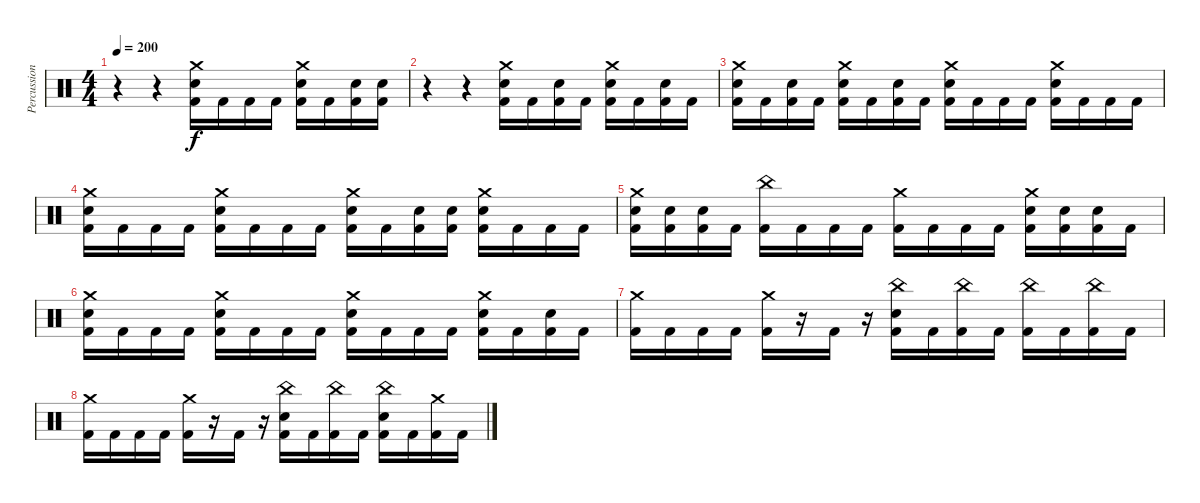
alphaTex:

\track ("Percussion" "Percussion") {instrument percussion}
\staff {score}
\articulation defaults
\ts (4 4)
\tempo 200
\clef neutral
\ks c
r.4{dy f} r.4 ("Crash medium (hit)" "Snare (hit) 2" "Kick (hit) 2").16 "Kick (hit) 2".16 "Kick (hit) 2".16 "Kick (hit) 2".16 ("Crash medium (hit)" "Snare (hit) 2" "Kick (hit) 2").16 "Kick (hit) 2".16 ("Snare (hit) 2" "Kick (hit) 2").16 ("Snare (hit) 2" "Kick (hit) 2").16 |
r.4 r.4 ("Crash medium (hit)" "Snare (hit) 2" "Kick (hit) 2").16 "Kick (hit) 2".16 ("Snare (hit) 2" "Kick (hit) 2").16 "Kick (hit) 2".16 ("Crash medium (hit)" "Snare (hit) 2" "Kick (hit) 2").16 "Kick (hit) 2".16 ("Snare (hit) 2" "Kick (hit) 2").16 "Kick (hit) 2".16 |
("Crash medium (hit)" "Snare (hit) 2" "Kick (hit) 2").16 "Kick (hit) 2".16 ("Snare (hit) 2" "Kick (hit) 2").16 "Kick (hit) 2".16 ("Crash medium (hit)" "Snare (hit) 2" "Kick (hit) 2").16 "Kick (hit) 2".16 ("Snare (hit) 2" "Kick (hit) 2").16 "Kick (hit) 2".16 ("Crash medium (hit)" "Snare (hit) 2" "Kick (hit) 2").16 "Kick (hit) 2".16 "Kick (hit) 2".16 "Kick (hit) 2".16 ("Crash medium (hit)" "Snare (hit) 2" "Kick (hit) 2").16 "Kick (hit) 2".16 "Kick (hit) 2".16 "Kick (hit) 2".16 |
("Crash medium (hit)" "Snare (hit) 2" "Kick (hit) 2").16 "Kick (hit) 2".16 "Kick (hit) 2".16 "Kick (hit) 2".16 ("Crash medium (hit)" "Snare (hit) 2" "Kick (hit) 2").16 "Kick (hit) 2".16 "Kick (hit) 2".16 "Kick (hit) 2".16 ("Crash medium (hit)" "Snare (hit) 2" "Kick (hit) 2").16 "Kick (hit) 2".16 ("Snare (hit) 2" "Kick (hit) 2").16 ("Snare (hit) 2" "Kick (hit) 2").16 ("Crash medium (hit)" "Snare (hit) 2" "Kick (hit) 2").16 "Kick (hit) 2".16 "Kick (hit) 2".16 "Kick (hit) 2".16 |
("Crash medium (hit)" "Snare (hit) 2" "Kick (hit) 2").16 ("Snare (hit) 2" "Kick (hit) 2").16 ("Snare (hit) 2" "Kick (hit) 2").16 "Kick (hit) 2".16 ("China (hit)" "Kick (hit) 2").16 "Kick (hit) 2".16 "Kick (hit) 2".16 "Kick (hit) 2".16 ("Crash medium (hit)" "Kick (hit) 2").16 "Kick (hit) 2".16 "Kick (hit) 2".16 "Kick (hit) 2".16 ("Crash medium (hit)" "Snare (hit) 2" "Kick (hit) 2").16 ("Snare (hit) 2" "Kick (hit) 2").16 ("Snare (hit) 2" "Kick (hit) 2").16 "Kick (hit) 2".16 |
("Crash medium (hit)" "Snare (hit) 2" "Kick (hit) 2").16 "Kick (hit) 2".16 "Kick (hit) 2".16 "Kick (hit) 2".16 ("Crash medium (hit)" "Snare (hit) 2" "Kick (hit) 2").16 "Kick (hit) 2".16 "Kick (hit) 2".16 "Kick (hit) 2".16 ("Crash medium (hit)" "Snare (hit) 2" "Kick (hit) 2").16 "Kick (hit) 2".16 "Kick (hit) 2".16 "Kick (hit) 2".16 ("Crash medium (hit)" "Snare (hit) 2" "Kick (hit) 2").16 "Kick (hit) 2".16 ("Snare (hit) 2" "Kick (hit) 2").16 "Kick (hit) 2".16 |
("Crash medium (hit)" "Kick (hit) 2").16 "Kick (hit) 2".16 "Kick (hit) 2".16 "Kick (hit) 2".16 ("Crash medium (hit)" "Kick (hit) 2").16 r.16 "Kick (hit) 2".16 r.16 ("China (hit)" "Snare (hit) 2" "Kick (hit) 2").16 "Kick (hit) 2".16 ("China (hit)" "Kick (hit) 2").16 "Kick (hit) 2".16 ("China (hit)" "Kick (hit) 2").16 "Kick (hit) 2".16 ("China (hit)" "Kick (hit) 2").16 "Kick (hit) 2".16 |
("Crash medium (hit)" "Kick (hit) 2").16 "Kick (hit) 2".16 "Kick (hit) 2".16 "Kick (hit) 2".16 ("Crash medium (hit)" "Kick (hit) 2").16 r.16 "Kick (hit) 2".16 r.16 ("China (hit)" "Snare (hit) 2" "Kick (hit) 2").16 "Kick (hit) 2".16 ("China (hit)" "Kick (hit) 2").16 "Kick (hit) 2".16 ("China (hit)" "Snare (hit) 2" "Kick (hit) 2").16 "Kick (hit) 2".16 ("Crash medium (hit)" "Kick (hit) 2").16 "Kick (hit) 2".16
